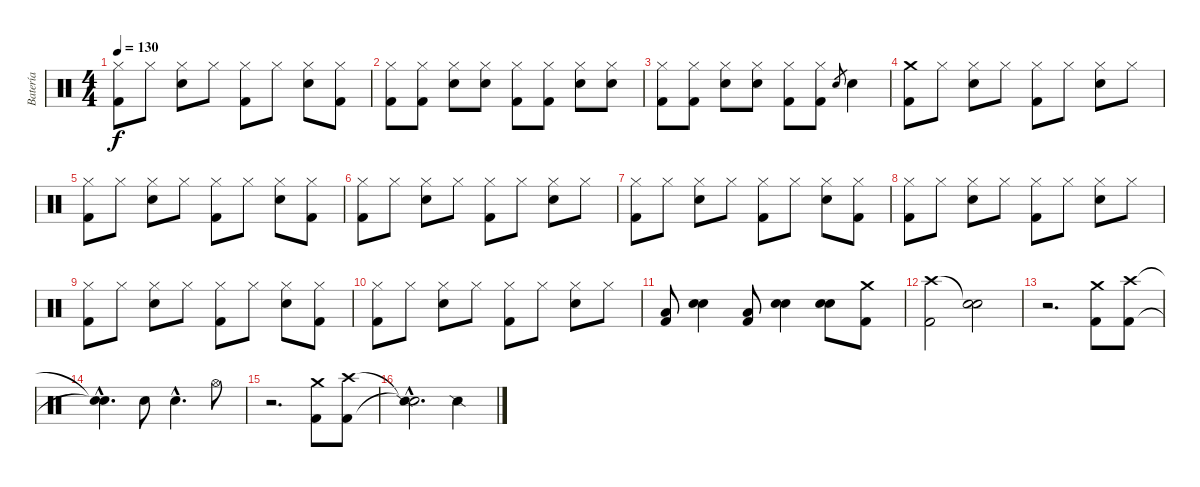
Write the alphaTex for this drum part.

\track ("Batería" "Batería") {instrument percussion}
\staff {score}
\articulation defaults
\ts (4 4)
\tempo 130
\clef neutral
\ks c
("Hi-Hat (closed)" "Kick (hit) 2").8{dy f} "Hi-Hat (closed)".8 ("Hi-Hat (closed)" "Snare (hit) 2").8 "Hi-Hat (closed)".8 ("Hi-Hat (closed)" "Kick (hit) 2").8 "Hi-Hat (closed)".8 ("Hi-Hat (closed)" "Snare (hit) 2").8 ("Hi-Hat (closed)" "Kick (hit) 2").8 |
("Hi-Hat (closed)" "Kick (hit) 2").8 ("Hi-Hat (closed)" "Kick (hit) 2").8 ("Hi-Hat (closed)" "Snare (hit) 2").8 ("Hi-Hat (closed)" "Snare (hit) 2").8 ("Hi-Hat (closed)" "Kick (hit) 2").8 ("Hi-Hat (closed)" "Kick (hit) 2").8 ("Hi-Hat (closed)" "Snare (hit) 2").8 ("Hi-Hat (closed)" "Snare (hit) 2").8 |
("Hi-Hat (closed)" "Kick (hit) 2").8 ("Hi-Hat (closed)" "Kick (hit) 2").8 ("Hi-Hat (closed)" "Snare (hit) 2").8 ("Hi-Hat (closed)" "Snare (hit) 2").8 ("Hi-Hat (closed)" "Kick (hit) 2").8 ("Hi-Hat (closed)" "Kick (hit) 2").8 "Snare (hit) 2".8{gr} "Snare (hit) 2".4 |
("Crash medium (hit)" "Kick (hit) 2").8 "Hi-Hat (closed)".8 ("Hi-Hat (closed)" "Snare (hit) 2").8 "Hi-Hat (closed)".8 ("Hi-Hat (closed)" "Kick (hit) 2").8 "Hi-Hat (closed)".8 ("Hi-Hat (closed)" "Snare (hit) 2").8 "Hi-Hat (closed)".8 |
("Hi-Hat (closed)" "Kick (hit) 2").8 "Hi-Hat (closed)".8 ("Hi-Hat (closed)" "Snare (hit) 2").8 "Hi-Hat (closed)".8 ("Hi-Hat (closed)" "Kick (hit) 2").8 "Hi-Hat (closed)".8 ("Hi-Hat (closed)" "Snare (hit) 2").8 ("Hi-Hat (closed)" "Kick (hit) 2").8 |
("Hi-Hat (closed)" "Kick (hit) 2").8 "Hi-Hat (closed)".8 ("Hi-Hat (closed)" "Snare (hit) 2").8 "Hi-Hat (closed)".8 ("Hi-Hat (closed)" "Kick (hit) 2").8 "Hi-Hat (closed)".8 ("Hi-Hat (closed)" "Snare (hit) 2").8 "Hi-Hat (closed)".8 |
("Hi-Hat (closed)" "Kick (hit) 2").8 "Hi-Hat (closed)".8 ("Hi-Hat (closed)" "Snare (hit) 2").8 "Hi-Hat (closed)".8 ("Hi-Hat (closed)" "Kick (hit) 2").8 "Hi-Hat (closed)".8 ("Hi-Hat (closed)" "Snare (hit) 2").8 ("Hi-Hat (closed)" "Kick (hit) 2").8 |
("Hi-Hat (closed)" "Kick (hit) 2").8 "Hi-Hat (closed)".8 ("Hi-Hat (closed)" "Snare (hit) 2").8 "Hi-Hat (closed)".8 ("Hi-Hat (closed)" "Kick (hit) 2").8 "Hi-Hat (closed)".8 ("Hi-Hat (closed)" "Snare (hit) 2").8 "Hi-Hat (closed)".8 |
("Hi-Hat (closed)" "Kick (hit) 2").8 "Hi-Hat (closed)".8 ("Hi-Hat (closed)" "Snare (hit) 2").8 "Hi-Hat (closed)".8 ("Hi-Hat (closed)" "Kick (hit) 2").8 "Hi-Hat (closed)".8 ("Hi-Hat (closed)" "Snare (hit) 2").8 ("Hi-Hat (closed)" "Kick (hit) 2").8 |
("Hi-Hat (closed)" "Kick (hit) 2").8 "Hi-Hat (closed)".8 ("Hi-Hat (closed)" "Snare (hit) 2").8 "Hi-Hat (closed)".8 ("Hi-Hat (closed)" "Kick (hit) 2").8 "Hi-Hat (closed)".8 ("Hi-Hat (closed)" "Snare (hit) 2").8 "Hi-Hat (closed)".8 |
("Low Tom (hit)" "Kick (hit) 2").8 ("Snare (hit) 2" "Snare (hit) 2").4 ("Low Tom (hit)" "Kick (hit) 2").8 ("Snare (hit) 2" "Snare (hit) 2").4 ("Snare (hit) 2" "Snare (hit) 2").8 ("Crash medium (hit)" "Kick (hit) 2").8 |
("Crash high (hit)" "Kick (hit) 2").2 ("Snare (hit)"{t} "Snare (hit) 2").2 |
r.2{d} ("Crash medium (hit)" "Kick (hit) 2").8 ("Crash high (hit)" "Kick (hit) 2").8 |
("Snare (hit)"{hac t} "Snare (hit)"{hac t}).4{d} "Snare (hit) 2".8 "Snare (hit) 2"{hac}.4{d} "Hi-Hat (open)".8 |
r.2{d} ("Crash medium (hit)" "Kick (hit) 2").8 ("Crash high (hit)" "Kick (hit) 2").8 |
("Snare (hit)"{hac t} "Snare (side stick) 2"{hac t}).2{d} "Snare (side stick) 2".4
